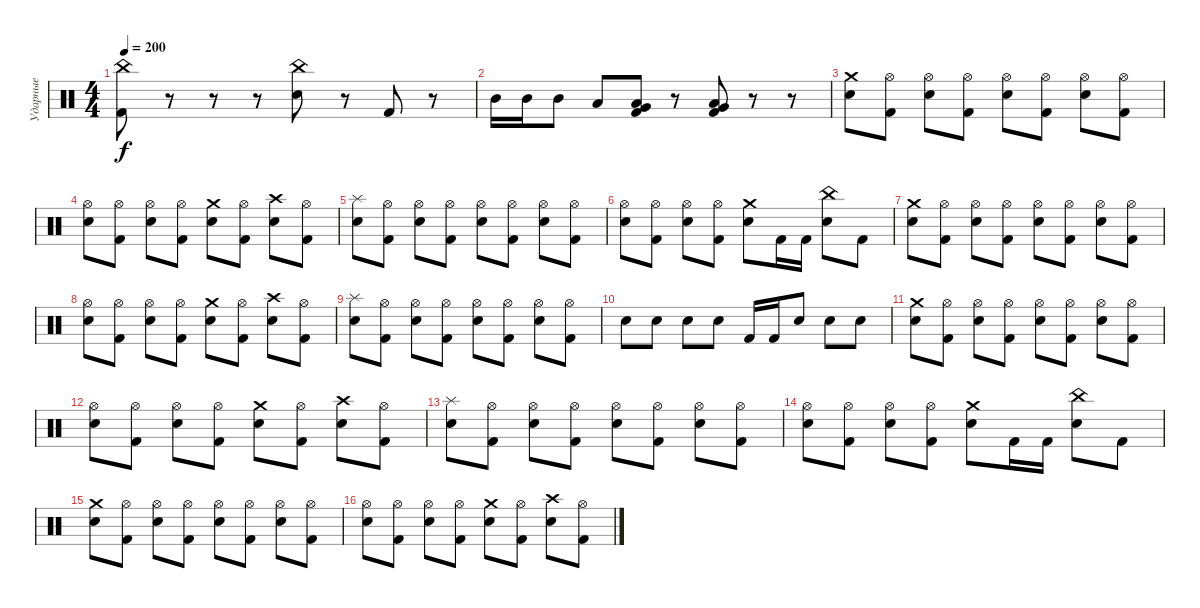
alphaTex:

\track ("Ударные" "Ударные") {instrument percussion}
\staff {score}
\articulation defaults
\ts (4 4)
\tempo 200
\clef neutral
\ks c
("Kick (hit) 2" "China (hit)").8{dy f} r.8 r.8 r.8 ("Electric Snare (hit)" "China (hit)").8 r.8 "Kick (hit) 2".8 r.8 |
"Mid Tom (hit)".16 "Mid Tom (hit)".16 "Mid Tom (hit)".8 "Low Tom (hit)".8 ("Kick (hit) 2" "Low Floor Tom (hit)" "Very Low Tom (hit)").8 r.8 ("Kick (hit) 2" "Low Floor Tom (hit)" "Very Low Tom (hit)").8 r.8 r.8 |
("Electric Snare (hit)" "Crash medium (hit)").8 ("Kick (hit) 2" "Hi-Hat (open)").8 ("Electric Snare (hit)" "Hi-Hat (open)").8 ("Kick (hit) 2" "Hi-Hat (open)").8 ("Electric Snare (hit)" "Hi-Hat (open)").8 ("Kick (hit) 2" "Hi-Hat (open)").8 ("Electric Snare (hit)" "Hi-Hat (open)").8 ("Kick (hit) 2" "Hi-Hat (open)").8 |
("Electric Snare (hit)" "Hi-Hat (open)").8 ("Kick (hit) 2" "Hi-Hat (open)").8 ("Electric Snare (hit)" "Hi-Hat (open)").8 ("Kick (hit) 2" "Hi-Hat (open)").8 ("Electric Snare (hit)" "Crash medium (hit)").8 ("Kick (hit) 2" "Hi-Hat (open)").8 ("Electric Snare (hit)" "Crash high (hit)").8 ("Kick (hit) 2" "Hi-Hat (open)").8 |
("Electric Snare (hit)" "Splash (hit)").8 ("Kick (hit) 2" "Hi-Hat (open)").8 ("Electric Snare (hit)" "Hi-Hat (open)").8 ("Kick (hit) 2" "Hi-Hat (open)").8 ("Electric Snare (hit)" "Hi-Hat (open)").8 ("Kick (hit) 2" "Hi-Hat (open)").8 ("Electric Snare (hit)" "Hi-Hat (open)").8 ("Kick (hit) 2" "Hi-Hat (open)").8 |
("Electric Snare (hit)" "Hi-Hat (open)").8 ("Kick (hit) 2" "Hi-Hat (open)").8 ("Electric Snare (hit)" "Hi-Hat (open)").8 ("Kick (hit) 2" "Hi-Hat (open)").8 ("Electric Snare (hit)" "Crash medium (hit)").8 "Kick (hit) 2".16 "Kick (hit) 2".16 ("Electric Snare (hit)" "China (hit)").8 "Kick (hit) 2".8 |
("Electric Snare (hit)" "Crash medium (hit)").8 ("Kick (hit) 2" "Hi-Hat (open)").8 ("Electric Snare (hit)" "Hi-Hat (open)").8 ("Kick (hit) 2" "Hi-Hat (open)").8 ("Electric Snare (hit)" "Hi-Hat (open)").8 ("Kick (hit) 2" "Hi-Hat (open)").8 ("Electric Snare (hit)" "Hi-Hat (open)").8 ("Kick (hit) 2" "Hi-Hat (open)").8 |
("Electric Snare (hit)" "Hi-Hat (open)").8 ("Kick (hit) 2" "Hi-Hat (open)").8 ("Electric Snare (hit)" "Hi-Hat (open)").8 ("Kick (hit) 2" "Hi-Hat (open)").8 ("Electric Snare (hit)" "Crash medium (hit)").8 ("Kick (hit) 2" "Hi-Hat (open)").8 ("Electric Snare (hit)" "Crash high (hit)").8 ("Kick (hit) 2" "Hi-Hat (open)").8 |
("Electric Snare (hit)" "Splash (hit)").8 ("Kick (hit) 2" "Hi-Hat (open)").8 ("Electric Snare (hit)" "Hi-Hat (open)").8 ("Kick (hit) 2" "Hi-Hat (open)").8 ("Electric Snare (hit)" "Hi-Hat (open)").8 ("Kick (hit) 2" "Hi-Hat (open)").8 ("Electric Snare (hit)" "Hi-Hat (open)").8 ("Kick (hit) 2" "Hi-Hat (open)").8 |
"Electric Snare (hit)".8 "Electric Snare (hit)".8 "Electric Snare (hit)".8 "Electric Snare (hit)".8 "Kick (hit) 2".16 "Kick (hit) 2".16 "Electric Snare (hit)".8 "Electric Snare (hit)".8 "Electric Snare (hit)".8 |
("Electric Snare (hit)" "Crash medium (hit)").8 ("Kick (hit) 2" "Hi-Hat (open)").8 ("Electric Snare (hit)" "Hi-Hat (open)").8 ("Kick (hit) 2" "Hi-Hat (open)").8 ("Electric Snare (hit)" "Hi-Hat (open)").8 ("Kick (hit) 2" "Hi-Hat (open)").8 ("Electric Snare (hit)" "Hi-Hat (open)").8 ("Kick (hit) 2" "Hi-Hat (open)").8 |
("Electric Snare (hit)" "Hi-Hat (open)").8 ("Kick (hit) 2" "Hi-Hat (open)").8 ("Electric Snare (hit)" "Hi-Hat (open)").8 ("Kick (hit) 2" "Hi-Hat (open)").8 ("Electric Snare (hit)" "Crash medium (hit)").8 ("Kick (hit) 2" "Hi-Hat (open)").8 ("Electric Snare (hit)" "Crash high (hit)").8 ("Kick (hit) 2" "Hi-Hat (open)").8 |
("Electric Snare (hit)" "Splash (hit)").8 ("Kick (hit) 2" "Hi-Hat (open)").8 ("Electric Snare (hit)" "Hi-Hat (open)").8 ("Kick (hit) 2" "Hi-Hat (open)").8 ("Electric Snare (hit)" "Hi-Hat (open)").8 ("Kick (hit) 2" "Hi-Hat (open)").8 ("Electric Snare (hit)" "Hi-Hat (open)").8 ("Kick (hit) 2" "Hi-Hat (open)").8 |
("Electric Snare (hit)" "Hi-Hat (open)").8 ("Kick (hit) 2" "Hi-Hat (open)").8 ("Electric Snare (hit)" "Hi-Hat (open)").8 ("Kick (hit) 2" "Hi-Hat (open)").8 ("Electric Snare (hit)" "Crash medium (hit)").8 "Kick (hit) 2".16 "Kick (hit) 2".16 ("Electric Snare (hit)" "China (hit)").8 "Kick (hit) 2".8 |
("Electric Snare (hit)" "Crash medium (hit)").8 ("Kick (hit) 2" "Hi-Hat (open)").8 ("Electric Snare (hit)" "Hi-Hat (open)").8 ("Kick (hit) 2" "Hi-Hat (open)").8 ("Electric Snare (hit)" "Hi-Hat (open)").8 ("Kick (hit) 2" "Hi-Hat (open)").8 ("Electric Snare (hit)" "Hi-Hat (open)").8 ("Kick (hit) 2" "Hi-Hat (open)").8 |
("Electric Snare (hit)" "Hi-Hat (open)").8 ("Kick (hit) 2" "Hi-Hat (open)").8 ("Electric Snare (hit)" "Hi-Hat (open)").8 ("Kick (hit) 2" "Hi-Hat (open)").8 ("Electric Snare (hit)" "Crash medium (hit)").8 ("Kick (hit) 2" "Hi-Hat (open)").8 ("Electric Snare (hit)" "Crash high (hit)").8 ("Kick (hit) 2" "Hi-Hat (open)").8
